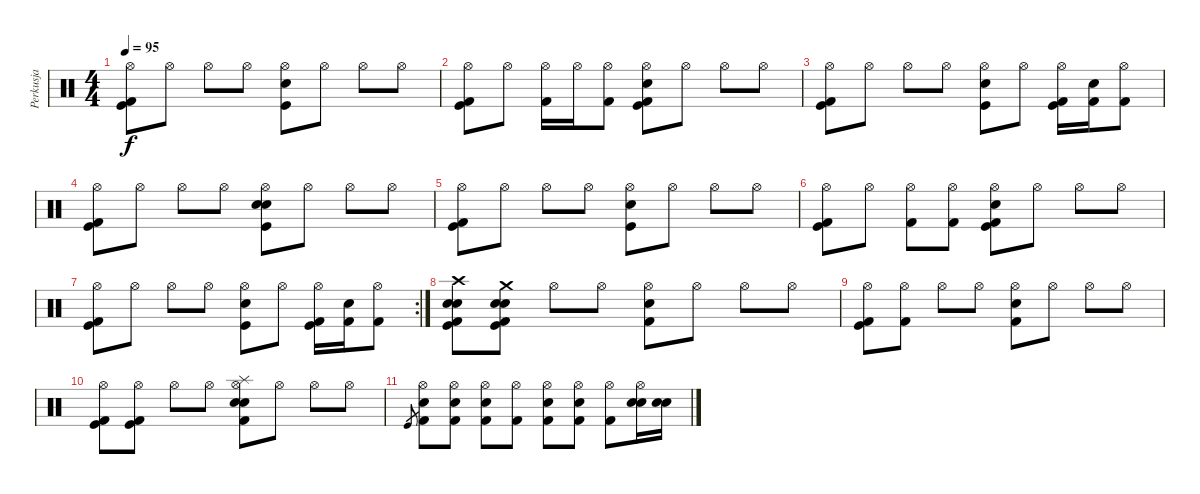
\track ("Perkusja" "Perkusja") {instrument percussion}
\staff {score}
\articulation defaults
\ts (4 4)
\tempo 95
\clef neutral
\ks c
("Hi-Hat (open)" "Kick (hit)" "Kick (hit) 2").8{dy f} "Hi-Hat (open)".8 "Hi-Hat (open)".8 "Hi-Hat (open)".8 ("Hi-Hat (open)" "Kick (hit)" "Electric Snare (hit)").8 "Hi-Hat (open)".8 "Hi-Hat (open)".8 "Hi-Hat (open)".8 |
("Hi-Hat (open)" "Kick (hit)" "Kick (hit) 2").8 "Hi-Hat (open)".8 ("Hi-Hat (open)" "Kick (hit) 2").16 "Hi-Hat (open)".16 ("Hi-Hat (open)" "Kick (hit) 2").8 ("Hi-Hat (open)" "Kick (hit) 2" "Kick (hit)" "Electric Snare (hit)").8 "Hi-Hat (open)".8 "Hi-Hat (open)".8 "Hi-Hat (open)".8 |
("Hi-Hat (open)" "Kick (hit)" "Kick (hit) 2").8 "Hi-Hat (open)".8 "Hi-Hat (open)".8 "Hi-Hat (open)".8 ("Hi-Hat (open)" "Kick (hit)" "Electric Snare (hit)").8 "Hi-Hat (open)".8 ("Hi-Hat (open)" "Kick (hit)" "Kick (hit) 2").16 ("Electric Snare (hit)" "Kick (hit) 2").16 ("Hi-Hat (open)" "Kick (hit) 2").8 |
("Hi-Hat (open)" "Kick (hit)" "Kick (hit) 2").8 "Hi-Hat (open)".8 "Hi-Hat (open)".8 "Hi-Hat (open)".8 ("Hi-Hat (open)" "Snare (hit) 2" "Kick (hit)" "Electric Snare (hit)").8 "Hi-Hat (open)".8 "Hi-Hat (open)".8 "Hi-Hat (open)".8 |
("Hi-Hat (open)" "Kick (hit)" "Kick (hit) 2").8 "Hi-Hat (open)".8 "Hi-Hat (open)".8 "Hi-Hat (open)".8 ("Hi-Hat (open)" "Kick (hit)" "Electric Snare (hit)").8 "Hi-Hat (open)".8 "Hi-Hat (open)".8 "Hi-Hat (open)".8 |
("Hi-Hat (open)" "Kick (hit)" "Kick (hit) 2").8 "Hi-Hat (open)".8 ("Hi-Hat (open)" "Kick (hit) 2").8 ("Hi-Hat (open)" "Kick (hit) 2").8 ("Hi-Hat (open)" "Kick (hit) 2" "Kick (hit)" "Electric Snare (hit)").8 "Hi-Hat (open)".8 "Hi-Hat (open)".8 "Hi-Hat (open)".8 |
\rc 2
("Hi-Hat (open)" "Kick (hit)" "Kick (hit) 2").8 "Hi-Hat (open)".8 "Hi-Hat (open)".8 "Hi-Hat (open)".8 ("Hi-Hat (open)" "Kick (hit)" "Electric Snare (hit)").8 "Hi-Hat (open)".8 ("Hi-Hat (open)" "Kick (hit)" "Kick (hit) 2").16 ("Electric Snare (hit)" "Kick (hit) 2").16 ("Hi-Hat (open)" "Kick (hit) 2").8 |
("Crash high (hit)" "Snare (hit) 2" "Electric Snare (hit)" "Kick (hit)" "Kick (hit) 2").8 ("Crash medium (hit)" "Snare (hit) 2" "Electric Snare (hit)" "Kick (hit)" "Kick (hit) 2").8 "Hi-Hat (open)".8 "Hi-Hat (open)".8 ("Hi-Hat (open)" "Kick (hit) 2" "Electric Snare (hit)").8 "Hi-Hat (open)".8 "Hi-Hat (open)".8 "Hi-Hat (open)".8 |
("Hi-Hat (open)" "Kick (hit)" "Kick (hit) 2").8 ("Hi-Hat (open)" "Kick (hit) 2").8 "Hi-Hat (open)".8 "Hi-Hat (open)".8 ("Hi-Hat (open)" "Kick (hit) 2" "Electric Snare (hit)").8 "Hi-Hat (open)".8 "Hi-Hat (open)".8 "Hi-Hat (open)".8 |
("Hi-Hat (open)" "Kick (hit)" "Kick (hit) 2").8 ("Hi-Hat (open)" "Kick (hit)" "Kick (hit) 2").8 "Hi-Hat (open)".8 "Hi-Hat (open)".8 ("Hi-Hat (open)" "Splash (hit)" "Snare (hit) 2" "Kick (hit) 2" "Electric Snare (hit)").8 "Hi-Hat (open)".8 "Hi-Hat (open)".8 "Hi-Hat (open)".8 |
"Kick (hit)".8{gr} ("Hi-Hat (open)" "Snare (hit) 2" "Kick (hit) 2").8 ("Hi-Hat (open)" "Electric Snare (hit)" "Kick (hit) 2").8 ("Hi-Hat (open)" "Electric Snare (hit)" "Kick (hit) 2").8 ("Hi-Hat (open)" "Kick (hit) 2").8 ("Hi-Hat (open)" "Kick (hit) 2" "Electric Snare (hit)").8 ("Hi-Hat (open)" "Electric Snare (hit)" "Kick (hit) 2").8 ("Hi-Hat (open)" "Kick (hit) 2").8 ("Hi-Hat (open)" "Electric Snare (hit)" "Electric Snare (hit)").16 ("Electric Snare (hit)" "Electric Snare (hit)").16
